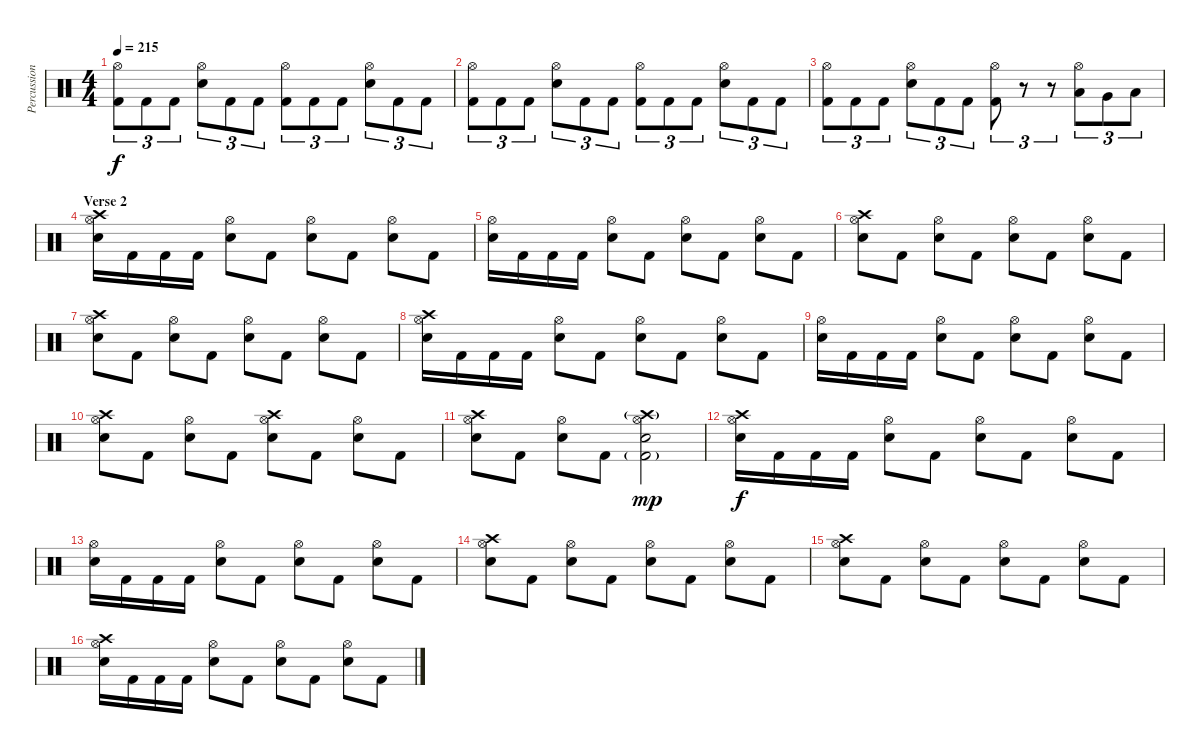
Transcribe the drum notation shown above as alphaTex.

\track ("Percussions" "Percussion") {instrument percussion}
\staff {score}
\articulation defaults
\ts (4 4)
\tempo 215
\clef neutral
\ks c
("Hi-Hat (open)" "Kick (hit) 2").8{tu (3 2) dy f} "Kick (hit) 2".8{tu (3 2)} "Kick (hit) 2".8{tu (3 2)} ("Hi-Hat (open)" "Electric Snare (hit)").8{tu (3 2)} "Kick (hit) 2".8{tu (3 2)} "Kick (hit) 2".8{tu (3 2)} ("Hi-Hat (open)" "Kick (hit) 2").8{tu (3 2)} "Kick (hit) 2".8{tu (3 2)} "Kick (hit) 2".8{tu (3 2)} ("Hi-Hat (open)" "Electric Snare (hit)").8{tu (3 2)} "Kick (hit) 2".8{tu (3 2)} "Kick (hit) 2".8{tu (3 2)} |
("Hi-Hat (open)" "Kick (hit) 2").8{tu (3 2)} "Kick (hit) 2".8{tu (3 2)} "Kick (hit) 2".8{tu (3 2)} ("Hi-Hat (open)" "Electric Snare (hit)").8{tu (3 2)} "Kick (hit) 2".8{tu (3 2)} "Kick (hit) 2".8{tu (3 2)} ("Hi-Hat (open)" "Kick (hit) 2").8{tu (3 2)} "Kick (hit) 2".8{tu (3 2)} "Kick (hit) 2".8{tu (3 2)} ("Hi-Hat (open)" "Electric Snare (hit)").8{tu (3 2)} "Kick (hit) 2".8{tu (3 2)} "Kick (hit) 2".8{tu (3 2)} |
("Hi-Hat (open)" "Kick (hit) 2").8{tu (3 2)} "Kick (hit) 2".8{tu (3 2)} "Kick (hit) 2".8{tu (3 2)} ("Hi-Hat (open)" "Electric Snare (hit)").8{tu (3 2)} "Kick (hit) 2".8{tu (3 2)} "Kick (hit) 2".8{tu (3 2)} ("Hi-Hat (open)" "Kick (hit) 2").8{tu (3 2)} r.8{tu (3 2)} r.8{tu (3 2)} ("Hi-Hat (open)" "Low Tom (hit)").8{tu (3 2)} "Very Low Tom (hit)".8{tu (3 2)} "Low Floor Tom (hit)".8{tu (3 2)} |
\section ("" "Verse 2")
("Crash high (hit)" "Hi-Hat (open)" "Electric Snare (hit)").16 "Kick (hit) 2".16 "Kick (hit) 2".16 "Kick (hit) 2".16 ("Hi-Hat (open)" "Electric Snare (hit)").8 "Kick (hit) 2".8 ("Hi-Hat (open)" "Electric Snare (hit)").8 "Kick (hit) 2".8 ("Hi-Hat (open)" "Electric Snare (hit)").8 "Kick (hit) 2".8 |
("Hi-Hat (open)" "Electric Snare (hit)").16 "Kick (hit) 2".16 "Kick (hit) 2".16 "Kick (hit) 2".16 ("Hi-Hat (open)" "Electric Snare (hit)").8 "Kick (hit) 2".8 ("Hi-Hat (open)" "Electric Snare (hit)").8 "Kick (hit) 2".8 ("Hi-Hat (open)" "Electric Snare (hit)").8 "Kick (hit) 2".8 |
("Crash high (hit)" "Hi-Hat (open)" "Electric Snare (hit)").8 "Kick (hit) 2".8 ("Hi-Hat (open)" "Electric Snare (hit)").8 "Kick (hit) 2".8 ("Hi-Hat (open)" "Electric Snare (hit)").8 "Kick (hit) 2".8 ("Hi-Hat (open)" "Electric Snare (hit)").8 "Kick (hit) 2".8 |
("Crash high (hit)" "Hi-Hat (open)" "Electric Snare (hit)").8 "Kick (hit) 2".8 ("Hi-Hat (open)" "Electric Snare (hit)").8 "Kick (hit) 2".8 ("Hi-Hat (open)" "Electric Snare (hit)").8 "Kick (hit) 2".8 ("Hi-Hat (open)" "Electric Snare (hit)").8 "Kick (hit) 2".8 |
("Crash high (hit)" "Hi-Hat (open)" "Electric Snare (hit)").16 "Kick (hit) 2".16 "Kick (hit) 2".16 "Kick (hit) 2".16 ("Hi-Hat (open)" "Electric Snare (hit)").8 "Kick (hit) 2".8 ("Hi-Hat (open)" "Electric Snare (hit)").8 "Kick (hit) 2".8 ("Hi-Hat (open)" "Electric Snare (hit)").8 "Kick (hit) 2".8 |
("Hi-Hat (open)" "Electric Snare (hit)").16 "Kick (hit) 2".16 "Kick (hit) 2".16 "Kick (hit) 2".16 ("Hi-Hat (open)" "Electric Snare (hit)").8 "Kick (hit) 2".8 ("Hi-Hat (open)" "Electric Snare (hit)").8 "Kick (hit) 2".8 ("Hi-Hat (open)" "Electric Snare (hit)").8 "Kick (hit) 2".8 |
("Crash high (hit)" "Hi-Hat (open)" "Electric Snare (hit)").8 "Kick (hit) 2".8 ("Hi-Hat (open)" "Electric Snare (hit)").8 "Kick (hit) 2".8 ("Crash high (hit)" "Hi-Hat (open)" "Electric Snare (hit)").8 "Kick (hit) 2".8 ("Hi-Hat (open)" "Electric Snare (hit)").8 "Kick (hit) 2".8 |
("Crash high (hit)" "Hi-Hat (open)" "Electric Snare (hit)").8 "Kick (hit) 2".8 ("Hi-Hat (open)" "Electric Snare (hit)").8 "Kick (hit) 2".8 ("Crash high (hit)"{g} "Hi-Hat (open)" "Electric Snare (hit)" "Kick (hit) 2"{g}).2{dy mp} |
("Crash high (hit)" "Hi-Hat (open)" "Electric Snare (hit)").16{dy f} "Kick (hit) 2".16 "Kick (hit) 2".16 "Kick (hit) 2".16 ("Hi-Hat (open)" "Electric Snare (hit)").8 "Kick (hit) 2".8 ("Hi-Hat (open)" "Electric Snare (hit)").8 "Kick (hit) 2".8 ("Hi-Hat (open)" "Electric Snare (hit)").8 "Kick (hit) 2".8 |
("Hi-Hat (open)" "Electric Snare (hit)").16 "Kick (hit) 2".16 "Kick (hit) 2".16 "Kick (hit) 2".16 ("Hi-Hat (open)" "Electric Snare (hit)").8 "Kick (hit) 2".8 ("Hi-Hat (open)" "Electric Snare (hit)").8 "Kick (hit) 2".8 ("Hi-Hat (open)" "Electric Snare (hit)").8 "Kick (hit) 2".8 |
("Crash high (hit)" "Hi-Hat (open)" "Electric Snare (hit)").8 "Kick (hit) 2".8 ("Hi-Hat (open)" "Electric Snare (hit)").8 "Kick (hit) 2".8 ("Hi-Hat (open)" "Electric Snare (hit)").8 "Kick (hit) 2".8 ("Hi-Hat (open)" "Electric Snare (hit)").8 "Kick (hit) 2".8 |
("Crash high (hit)" "Hi-Hat (open)" "Electric Snare (hit)").8 "Kick (hit) 2".8 ("Hi-Hat (open)" "Electric Snare (hit)").8 "Kick (hit) 2".8 ("Hi-Hat (open)" "Electric Snare (hit)").8 "Kick (hit) 2".8 ("Hi-Hat (open)" "Electric Snare (hit)").8 "Kick (hit) 2".8 |
("Crash high (hit)" "Hi-Hat (open)" "Electric Snare (hit)").16 "Kick (hit) 2".16 "Kick (hit) 2".16 "Kick (hit) 2".16 ("Hi-Hat (open)" "Electric Snare (hit)").8 "Kick (hit) 2".8 ("Hi-Hat (open)" "Electric Snare (hit)").8 "Kick (hit) 2".8 ("Hi-Hat (open)" "Electric Snare (hit)").8 "Kick (hit) 2".8
